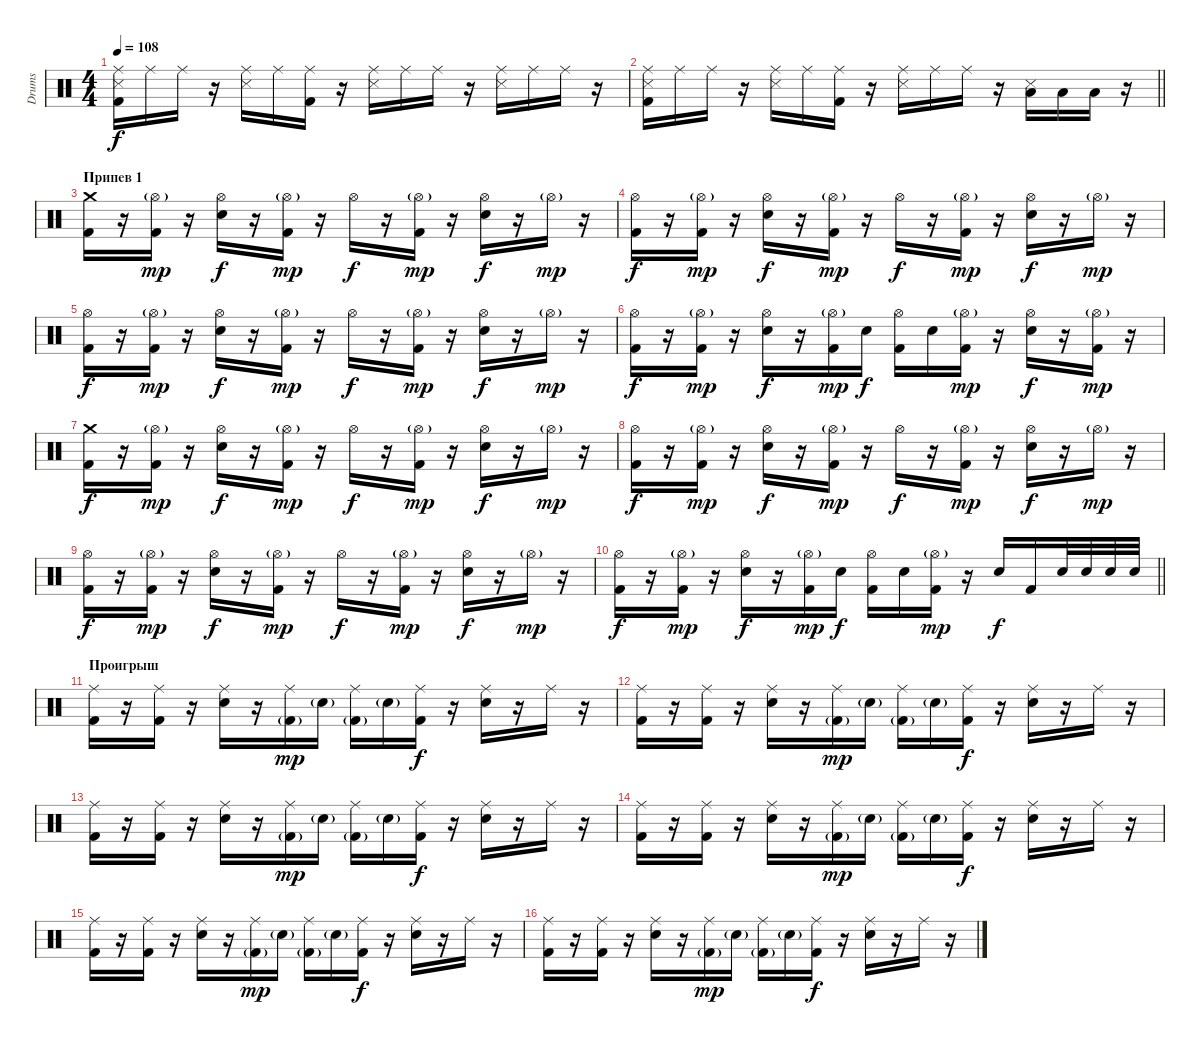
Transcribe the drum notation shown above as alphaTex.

\track ("Drums" "Drums") {instrument percussion}
\staff {score}
\articulation defaults
\ts (4 4)
\tempo 108
\clef neutral
\ks c
("Ride (middle)" "Kick (hit) 2" "Snare (side stick) 3").16{dy f} "Ride (middle)".16 "Ride (middle)".16 r.16 ("Ride (middle)" "Snare (side stick) 3").16 "Ride (middle)".16 ("Ride (middle)" "Kick (hit) 2").16 r.16 ("Ride (middle)" "Snare (side stick) 3").16 "Ride (middle)".16 "Ride (middle)".16 r.16 ("Ride (middle)" "Snare (side stick) 3").16 "Ride (middle)".16 "Ride (middle)".16 r.16 |
\barLineRight lightlight
("Ride (middle)" "Kick (hit) 2" "Snare (side stick) 3").16 "Ride (middle)".16 "Ride (middle)".16 r.16 ("Ride (middle)" "Snare (side stick) 3").16 "Ride (middle)".16 ("Ride (middle)" "Kick (hit) 2").16 r.16 ("Ride (middle)" "Snare (side stick) 3").16 "Ride (middle)".16 "Ride (middle)".16 r.16 ("Low Floor Tom (hit)" "Snare (side stick) 3").16 "Low Floor Tom (hit)".16 "Low Tom (hit)".16 r.16 |
\section ("" "Припев 1")
("Crash medium (hit)" "Kick (hit) 2").16 r.16 ("Hi-Hat (open)"{g} "Kick (hit) 2").16{dy mp} r.16 ("Hi-Hat (open)" "Electric Snare (hit)").16{dy f} r.16 ("Hi-Hat (open)"{g} "Kick (hit) 2").16{dy mp} r.16 "Hi-Hat (open)".16{dy f} r.16 ("Hi-Hat (open)"{g} "Kick (hit) 2").16{dy mp} r.16 ("Hi-Hat (open)" "Electric Snare (hit)").16{dy f} r.16 "Hi-Hat (open)"{g}.16{dy mp} r.16 |
("Hi-Hat (open)" "Kick (hit) 2").16{dy f} r.16 ("Hi-Hat (open)"{g} "Kick (hit) 2").16{dy mp} r.16 ("Hi-Hat (open)" "Electric Snare (hit)").16{dy f} r.16 ("Hi-Hat (open)"{g} "Kick (hit) 2").16{dy mp} r.16 "Hi-Hat (open)".16{dy f} r.16 ("Hi-Hat (open)"{g} "Kick (hit) 2").16{dy mp} r.16 ("Hi-Hat (open)" "Electric Snare (hit)").16{dy f} r.16 "Hi-Hat (open)"{g}.16{dy mp} r.16 |
("Hi-Hat (open)" "Kick (hit) 2").16{dy f} r.16 ("Hi-Hat (open)"{g} "Kick (hit) 2").16{dy mp} r.16 ("Hi-Hat (open)" "Electric Snare (hit)").16{dy f} r.16 ("Hi-Hat (open)"{g} "Kick (hit) 2").16{dy mp} r.16 "Hi-Hat (open)".16{dy f} r.16 ("Hi-Hat (open)"{g} "Kick (hit) 2").16{dy mp} r.16 ("Hi-Hat (open)" "Electric Snare (hit)").16{dy f} r.16 "Hi-Hat (open)"{g}.16{dy mp} r.16 |
("Hi-Hat (open)" "Kick (hit) 2").16{dy f} r.16 ("Hi-Hat (open)"{g} "Kick (hit) 2").16{dy mp} r.16 ("Hi-Hat (open)" "Electric Snare (hit)").16{dy f} r.16 ("Hi-Hat (open)"{g} "Kick (hit) 2").16{dy mp} "Electric Snare (hit)".16{dy f} ("Hi-Hat (open)" "Kick (hit) 2").16 "Electric Snare (hit)".16 ("Hi-Hat (open)"{g} "Kick (hit) 2").16{dy mp} r.16 ("Hi-Hat (open)" "Electric Snare (hit)").16{dy f} r.16 ("Hi-Hat (open)"{g} "Kick (hit) 2").16{dy mp} r.16 |
("Crash medium (hit)" "Kick (hit) 2").16{dy f} r.16 ("Hi-Hat (open)"{g} "Kick (hit) 2").16{dy mp} r.16 ("Hi-Hat (open)" "Electric Snare (hit)").16{dy f} r.16 ("Hi-Hat (open)"{g} "Kick (hit) 2").16{dy mp} r.16 "Hi-Hat (open)".16{dy f} r.16 ("Hi-Hat (open)"{g} "Kick (hit) 2").16{dy mp} r.16 ("Hi-Hat (open)" "Electric Snare (hit)").16{dy f} r.16 "Hi-Hat (open)"{g}.16{dy mp} r.16 |
("Hi-Hat (open)" "Kick (hit) 2").16{dy f} r.16 ("Hi-Hat (open)"{g} "Kick (hit) 2").16{dy mp} r.16 ("Hi-Hat (open)" "Electric Snare (hit)").16{dy f} r.16 ("Hi-Hat (open)"{g} "Kick (hit) 2").16{dy mp} r.16 "Hi-Hat (open)".16{dy f} r.16 ("Hi-Hat (open)"{g} "Kick (hit) 2").16{dy mp} r.16 ("Hi-Hat (open)" "Electric Snare (hit)").16{dy f} r.16 "Hi-Hat (open)"{g}.16{dy mp} r.16 |
("Hi-Hat (open)" "Kick (hit) 2").16{dy f} r.16 ("Hi-Hat (open)"{g} "Kick (hit) 2").16{dy mp} r.16 ("Hi-Hat (open)" "Electric Snare (hit)").16{dy f} r.16 ("Hi-Hat (open)"{g} "Kick (hit) 2").16{dy mp} r.16 "Hi-Hat (open)".16{dy f} r.16 ("Hi-Hat (open)"{g} "Kick (hit) 2").16{dy mp} r.16 ("Hi-Hat (open)" "Electric Snare (hit)").16{dy f} r.16 "Hi-Hat (open)"{g}.16{dy mp} r.16 |
\barLineRight lightlight
("Hi-Hat (open)" "Kick (hit) 2").16{dy f} r.16 ("Hi-Hat (open)"{g} "Kick (hit) 2").16{dy mp} r.16 ("Hi-Hat (open)" "Electric Snare (hit)").16{dy f} r.16 ("Hi-Hat (open)"{g} "Kick (hit) 2").16{dy mp} "Electric Snare (hit)".16{dy f} ("Hi-Hat (open)" "Kick (hit) 2").16 "Electric Snare (hit)".16 ("Hi-Hat (open)"{g} "Kick (hit) 2").16{dy mp} r.16 "Electric Snare (hit)".16{dy f} "Kick (hit) 2".16 "Electric Snare (hit)".32 "Electric Snare (hit)".32 "Electric Snare (hit)".32 "Electric Snare (hit)".32 |
\section ("" "Проигрыш")
("Ride (middle)" "Kick (hit) 2").16 r.16 ("Ride (middle)" "Kick (hit) 2").16 r.16 ("Ride (middle)" "Electric Snare (hit)").16 r.16 ("Ride (middle)" "Kick (hit) 2"{g}).16{dy mp} "Electric Snare (hit)"{g}.16 ("Ride (middle)" "Kick (hit) 2"{g}).16 "Electric Snare (hit)"{g}.16 ("Ride (middle)" "Kick (hit) 2").16{dy f} r.16 ("Ride (middle)" "Electric Snare (hit)").16 r.16 "Ride (middle)".16 r.16 |
("Ride (middle)" "Kick (hit) 2").16 r.16 ("Ride (middle)" "Kick (hit) 2").16 r.16 ("Ride (middle)" "Electric Snare (hit)").16 r.16 ("Ride (middle)" "Kick (hit) 2"{g}).16{dy mp} "Electric Snare (hit)"{g}.16 ("Ride (middle)" "Kick (hit) 2"{g}).16 "Electric Snare (hit)"{g}.16 ("Ride (middle)" "Kick (hit) 2").16{dy f} r.16 ("Ride (middle)" "Electric Snare (hit)").16 r.16 "Ride (middle)".16 r.16 |
("Ride (middle)" "Kick (hit) 2").16 r.16 ("Ride (middle)" "Kick (hit) 2").16 r.16 ("Ride (middle)" "Electric Snare (hit)").16 r.16 ("Ride (middle)" "Kick (hit) 2"{g}).16{dy mp} "Electric Snare (hit)"{g}.16 ("Ride (middle)" "Kick (hit) 2"{g}).16 "Electric Snare (hit)"{g}.16 ("Ride (middle)" "Kick (hit) 2").16{dy f} r.16 ("Ride (middle)" "Electric Snare (hit)").16 r.16 "Ride (middle)".16 r.16 |
("Ride (middle)" "Kick (hit) 2").16 r.16 ("Ride (middle)" "Kick (hit) 2").16 r.16 ("Ride (middle)" "Electric Snare (hit)").16 r.16 ("Ride (middle)" "Kick (hit) 2"{g}).16{dy mp} "Electric Snare (hit)"{g}.16 ("Ride (middle)" "Kick (hit) 2"{g}).16 "Electric Snare (hit)"{g}.16 ("Ride (middle)" "Kick (hit) 2").16{dy f} r.16 ("Ride (middle)" "Electric Snare (hit)").16 r.16 "Ride (middle)".16 r.16 |
("Ride (middle)" "Kick (hit) 2").16 r.16 ("Ride (middle)" "Kick (hit) 2").16 r.16 ("Ride (middle)" "Electric Snare (hit)").16 r.16 ("Ride (middle)" "Kick (hit) 2"{g}).16{dy mp} "Electric Snare (hit)"{g}.16 ("Ride (middle)" "Kick (hit) 2"{g}).16 "Electric Snare (hit)"{g}.16 ("Ride (middle)" "Kick (hit) 2").16{dy f} r.16 ("Ride (middle)" "Electric Snare (hit)").16 r.16 "Ride (middle)".16 r.16 |
("Ride (middle)" "Kick (hit) 2").16 r.16 ("Ride (middle)" "Kick (hit) 2").16 r.16 ("Ride (middle)" "Electric Snare (hit)").16 r.16 ("Ride (middle)" "Kick (hit) 2"{g}).16{dy mp} "Electric Snare (hit)"{g}.16 ("Ride (middle)" "Kick (hit) 2"{g}).16 "Electric Snare (hit)"{g}.16 ("Ride (middle)" "Kick (hit) 2").16{dy f} r.16 ("Ride (middle)" "Electric Snare (hit)").16 r.16 "Ride (middle)".16 r.16
